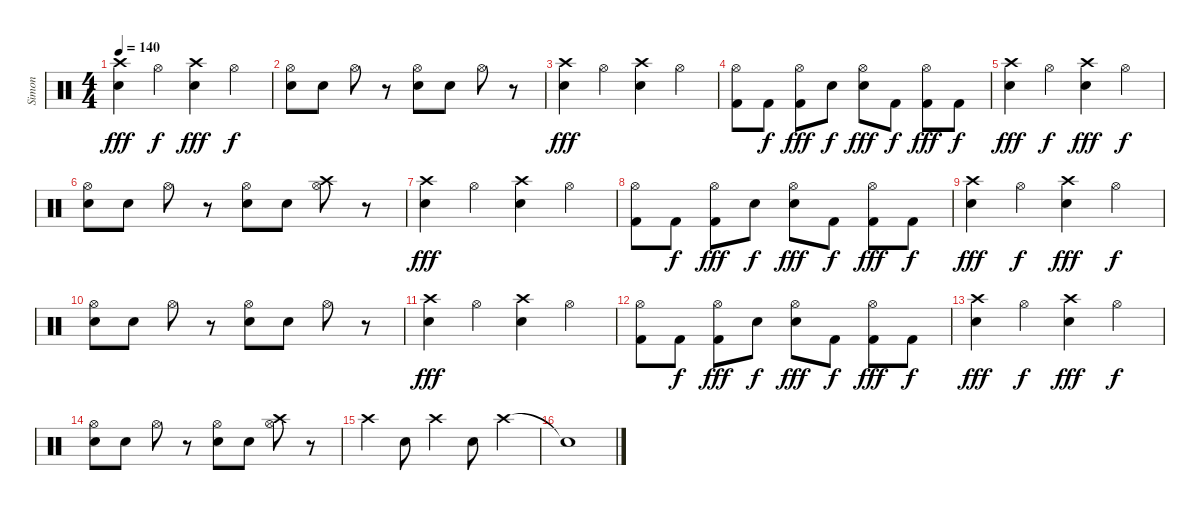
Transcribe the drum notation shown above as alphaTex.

\track ("Simon" "Simon") {instrument percussion}
\staff {score}
\articulation defaults
\ts (4 4)
\tempo 140
\clef neutral
\ks c
("Crash high (hit)" "Electric Snare (hit)").4{dy fff} "Hi-Hat (open)".4{dy f} ("Crash high (hit)" "Electric Snare (hit)").4{dy fff} "Hi-Hat (open)".4{dy f} |
("Electric Snare (hit)" "Hi-Hat (open)").8 "Electric Snare (hit)".8 "Hi-Hat (open)".8 r.8 ("Electric Snare (hit)" "Hi-Hat (open)").8 "Electric Snare (hit)".8 "Hi-Hat (open)".8 r.8 |
("Crash high (hit)" "Electric Snare (hit)").4{dy fff} "Hi-Hat (open)".4 ("Crash high (hit)" "Electric Snare (hit)").4 "Hi-Hat (open)".4 |
("Kick (hit) 2" "Hi-Hat (open)").8 "Kick (hit) 2".8{dy f} ("Kick (hit) 2" "Hi-Hat (open)").8{dy fff} "Electric Snare (hit)".8{dy f} ("Electric Snare (hit)" "Hi-Hat (open)").8{dy fff} "Kick (hit) 2".8{dy f} ("Kick (hit) 2" "Hi-Hat (open)").8{dy fff} "Kick (hit) 2".8{dy f} |
("Crash high (hit)" "Electric Snare (hit)").4{dy fff} "Hi-Hat (open)".4{dy f} ("Crash high (hit)" "Electric Snare (hit)").4{dy fff} "Hi-Hat (open)".4{dy f} |
("Electric Snare (hit)" "Hi-Hat (open)").8 "Electric Snare (hit)".8 "Hi-Hat (open)".8 r.8 ("Electric Snare (hit)" "Hi-Hat (open)").8 "Electric Snare (hit)".8 ("Crash high (hit)" "Hi-Hat (open)").8 r.8 |
("Crash high (hit)" "Electric Snare (hit)").4{dy fff} "Hi-Hat (open)".4 ("Crash high (hit)" "Electric Snare (hit)").4 "Hi-Hat (open)".4 |
("Kick (hit) 2" "Hi-Hat (open)").8 "Kick (hit) 2".8{dy f} ("Kick (hit) 2" "Hi-Hat (open)").8{dy fff} "Electric Snare (hit)".8{dy f} ("Electric Snare (hit)" "Hi-Hat (open)").8{dy fff} "Kick (hit) 2".8{dy f} ("Kick (hit) 2" "Hi-Hat (open)").8{dy fff} "Kick (hit) 2".8{dy f} |
("Crash high (hit)" "Electric Snare (hit)").4{dy fff} "Hi-Hat (open)".4{dy f} ("Crash high (hit)" "Electric Snare (hit)").4{dy fff} "Hi-Hat (open)".4{dy f} |
("Electric Snare (hit)" "Hi-Hat (open)").8 "Electric Snare (hit)".8 "Hi-Hat (open)".8 r.8 ("Electric Snare (hit)" "Hi-Hat (open)").8 "Electric Snare (hit)".8 "Hi-Hat (open)".8 r.8 |
("Crash high (hit)" "Electric Snare (hit)").4{dy fff} "Hi-Hat (open)".4 ("Crash high (hit)" "Electric Snare (hit)").4 "Hi-Hat (open)".4 |
("Kick (hit) 2" "Hi-Hat (open)").8 "Kick (hit) 2".8{dy f} ("Kick (hit) 2" "Hi-Hat (open)").8{dy fff} "Electric Snare (hit)".8{dy f} ("Electric Snare (hit)" "Hi-Hat (open)").8{dy fff} "Kick (hit) 2".8{dy f} ("Kick (hit) 2" "Hi-Hat (open)").8{dy fff} "Kick (hit) 2".8{dy f} |
("Crash high (hit)" "Electric Snare (hit)").4{dy fff} "Hi-Hat (open)".4{dy f} ("Crash high (hit)" "Electric Snare (hit)").4{dy fff} "Hi-Hat (open)".4{dy f} |
("Electric Snare (hit)" "Hi-Hat (open)").8 "Electric Snare (hit)".8 "Hi-Hat (open)".8 r.8 ("Electric Snare (hit)" "Hi-Hat (open)").8 "Electric Snare (hit)".8 ("Crash high (hit)" "Hi-Hat (open)").8 r.8 |
"Crash high (hit)".4 "Snare (hit) 2".8 "Crash high (hit)".4 "Snare (hit) 2".8 "Crash high (hit)".4 |
"Snare (hit)"{t}.1
